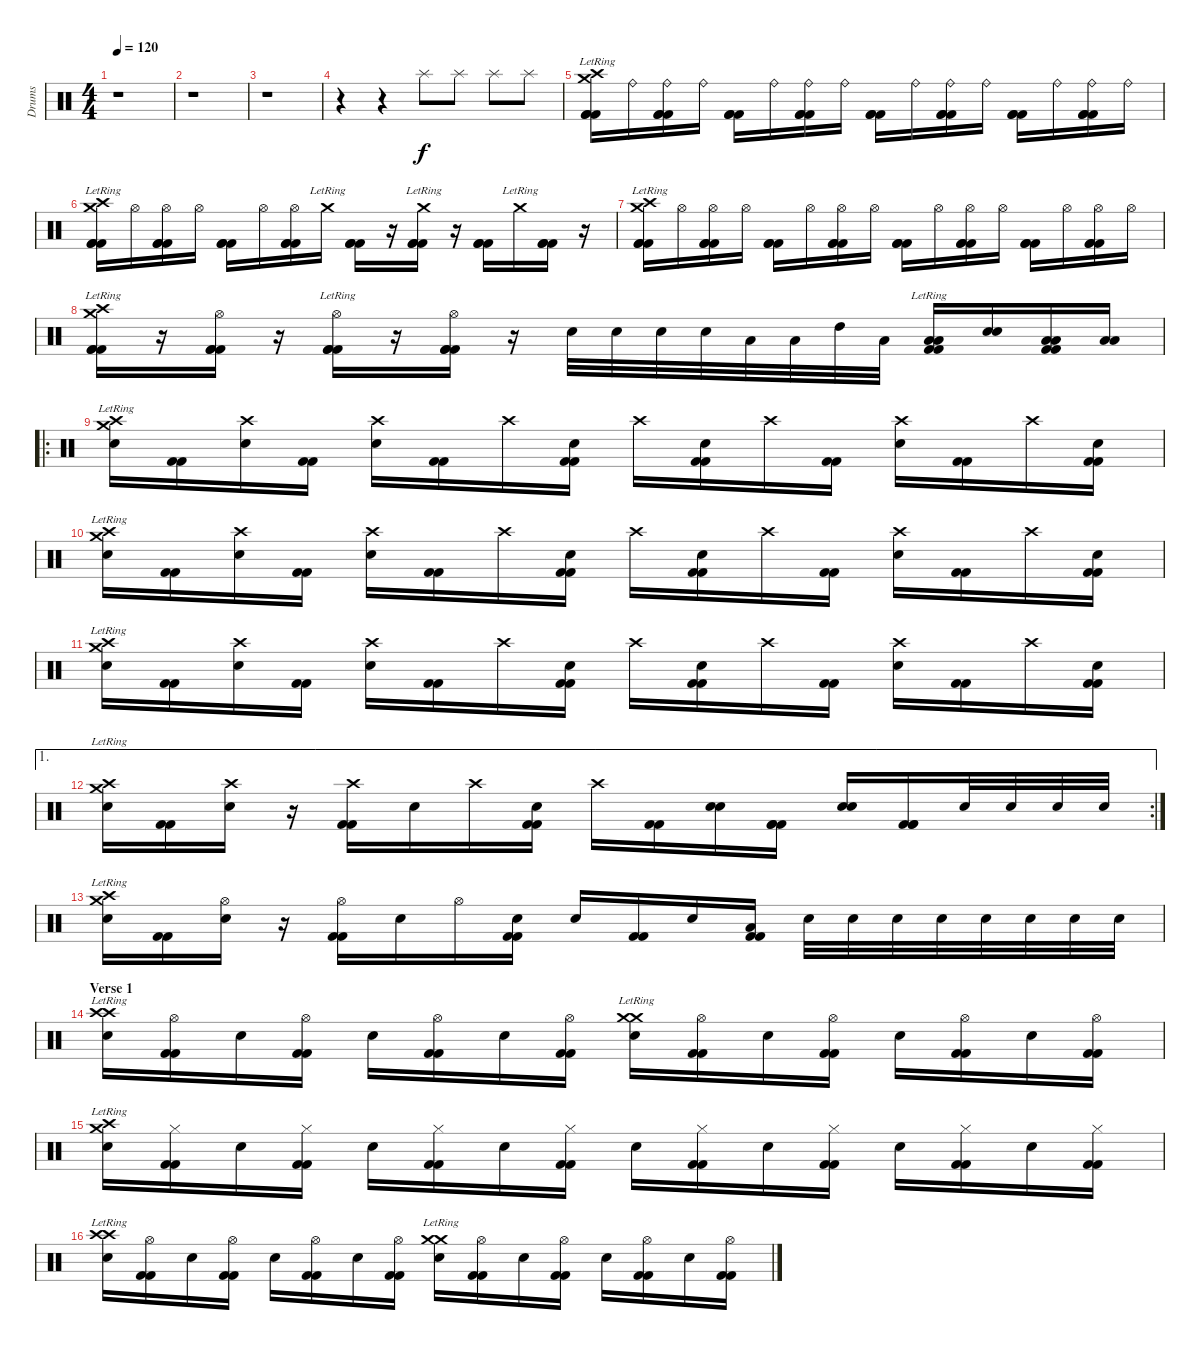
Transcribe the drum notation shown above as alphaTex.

\track ("Drums" "Drums") {instrument percussion}
\staff {score}
\articulation defaults
\ts (4 4)
\tempo 120
\clef neutral
\ks c
r.1{dy f} |
r.1 |
r.1 |
r.4 r.4 "Splash (hit)".8 "Splash (hit)".8 "Splash (hit)".8 "Splash (hit)".8 |
("Crash high (hit)"{lr} "Crash medium (hit)"{lr} "Kick (hit) 2" "Kick (hit) 2" "Kick (hit) 2").16 "Ride (bell)".16 ("Ride (bell)" "Kick (hit) 2" "Kick (hit) 2" "Kick (hit) 2").16 "Ride (bell)".16 ("Kick (hit) 2" "Kick (hit) 2" "Kick (hit) 2").16 "Ride (bell)".16 ("Ride (bell)" "Kick (hit) 2" "Kick (hit) 2" "Kick (hit) 2").16 "Ride (bell)".16 ("Kick (hit) 2" "Kick (hit) 2" "Kick (hit) 2").16 "Ride (bell)".16 ("Ride (bell)" "Kick (hit) 2" "Kick (hit) 2" "Kick (hit) 2").16 "Ride (bell)".16 ("Kick (hit) 2" "Kick (hit) 2" "Kick (hit) 2").16 "Ride (bell)".16 ("Ride (bell)" "Kick (hit) 2" "Kick (hit) 2" "Kick (hit) 2").16 "Ride (bell)".16 |
("Crash high (hit)"{lr} "Crash medium (hit)"{lr} "Kick (hit) 2" "Kick (hit) 2" "Kick (hit) 2").16 "Hi-Hat (open)".16 ("Hi-Hat (open)" "Kick (hit) 2" "Kick (hit) 2" "Kick (hit) 2").16 "Hi-Hat (open)".16 ("Kick (hit) 2" "Kick (hit) 2" "Kick (hit) 2").16 "Hi-Hat (open)".16 ("Hi-Hat (open)" "Kick (hit) 2" "Kick (hit) 2" "Kick (hit) 2").16 "Crash medium (hit)"{lr}.16 ("Kick (hit) 2" "Kick (hit) 2" "Kick (hit) 2").16 r.16 ("Crash medium (hit)"{lr} "Kick (hit) 2" "Kick (hit) 2" "Kick (hit) 2").16 r.16 ("Kick (hit) 2" "Kick (hit) 2" "Kick (hit) 2").16 "Crash medium (hit)"{lr}.16 ("Kick (hit) 2" "Kick (hit) 2" "Kick (hit) 2").16 r.16 |
("Crash high (hit)"{lr} "Crash medium (hit)"{lr} "Kick (hit) 2" "Kick (hit) 2" "Kick (hit) 2").16 "Hi-Hat (open)".16 ("Hi-Hat (open)" "Kick (hit) 2" "Kick (hit) 2" "Kick (hit) 2").16 "Hi-Hat (open)".16 ("Kick (hit) 2" "Kick (hit) 2" "Kick (hit) 2").16 "Hi-Hat (open)".16 ("Hi-Hat (open)" "Kick (hit) 2" "Kick (hit) 2" "Kick (hit) 2").16 "Hi-Hat (open)".16 ("Kick (hit) 2" "Kick (hit) 2" "Kick (hit) 2").16 "Hi-Hat (open)".16 ("Hi-Hat (open)" "Kick (hit) 2" "Kick (hit) 2" "Kick (hit) 2").16 "Hi-Hat (open)".16 ("Kick (hit) 2" "Kick (hit) 2" "Kick (hit) 2").16 "Hi-Hat (open)".16 ("Hi-Hat (open)" "Kick (hit) 2" "Kick (hit) 2" "Kick (hit) 2").16 "Hi-Hat (open)".16 |
("Crash high (hit)"{lr} "Crash medium (hit)"{lr} "Kick (hit) 2" "Kick (hit) 2" "Kick (hit) 2").16 r.16 ("Hi-Hat (open)" "Kick (hit) 2" "Kick (hit) 2" "Kick (hit) 2").16 r.16 ("Hi-Hat (open)"{lr} "Kick (hit) 2" "Kick (hit) 2" "Kick (hit) 2").16 r.16 ("Hi-Hat (open)" "Kick (hit) 2" "Kick (hit) 2" "Kick (hit) 2").16 r.16 "Electric Snare (hit)".32 "Electric Snare (hit)".32 "Electric Snare (hit)".32 "Electric Snare (hit)".32 "Low Floor Tom (hit)".32 "Low Tom (hit)".32 "High Tom (hit)".32 "Low Tom (hit)".32 ("Low Floor Tom (hit)" "Low Floor Tom (hit)"{lr} "Kick (hit) 2" "Kick (hit) 2").16 ("Electric Snare (hit)" "Electric Snare (hit)").16 ("Low Floor Tom (hit)" "Low Floor Tom (hit)" "Kick (hit) 2" "Kick (hit) 2").16 ("Low Tom (hit)" "Low Tom (hit)").16 |
\ro
("Crash medium (hit)"{lr} "Crash high (hit)"{lr} "Electric Snare (hit)").16 ("Kick (hit) 2" "Kick (hit) 2").16 ("Crash high (hit)" "Electric Snare (hit)").16 ("Kick (hit) 2" "Kick (hit) 2").16 ("Crash high (hit)" "Electric Snare (hit)").16 ("Kick (hit) 2" "Kick (hit) 2").16 "Crash high (hit)".16 ("Electric Snare (hit)" "Kick (hit) 2" "Kick (hit) 2").16 "Crash high (hit)".16 ("Electric Snare (hit)" "Kick (hit) 2" "Kick (hit) 2").16 "Crash high (hit)".16 ("Kick (hit) 2" "Kick (hit) 2").16 ("Crash high (hit)" "Electric Snare (hit)").16 ("Kick (hit) 2" "Kick (hit) 2").16 "Crash high (hit)".16 ("Electric Snare (hit)" "Kick (hit) 2" "Kick (hit) 2").16 |
("Crash medium (hit)"{lr} "Crash high (hit)"{lr} "Electric Snare (hit)").16 ("Kick (hit) 2" "Kick (hit) 2").16 ("Crash high (hit)" "Electric Snare (hit)").16 ("Kick (hit) 2" "Kick (hit) 2").16 ("Crash high (hit)" "Electric Snare (hit)").16 ("Kick (hit) 2" "Kick (hit) 2").16 "Crash high (hit)".16 ("Electric Snare (hit)" "Kick (hit) 2" "Kick (hit) 2").16 "Crash high (hit)".16 ("Electric Snare (hit)" "Kick (hit) 2" "Kick (hit) 2").16 "Crash high (hit)".16 ("Kick (hit) 2" "Kick (hit) 2").16 ("Crash high (hit)" "Electric Snare (hit)").16 ("Kick (hit) 2" "Kick (hit) 2").16 "Crash high (hit)".16 ("Electric Snare (hit)" "Kick (hit) 2" "Kick (hit) 2").16 |
("Crash medium (hit)"{lr} "Crash high (hit)"{lr} "Electric Snare (hit)").16 ("Kick (hit) 2" "Kick (hit) 2").16 ("Crash high (hit)" "Electric Snare (hit)").16 ("Kick (hit) 2" "Kick (hit) 2").16 ("Crash high (hit)" "Electric Snare (hit)").16 ("Kick (hit) 2" "Kick (hit) 2").16 "Crash high (hit)".16 ("Electric Snare (hit)" "Kick (hit) 2" "Kick (hit) 2").16 "Crash high (hit)".16 ("Electric Snare (hit)" "Kick (hit) 2" "Kick (hit) 2").16 "Crash high (hit)".16 ("Kick (hit) 2" "Kick (hit) 2").16 ("Crash high (hit)" "Electric Snare (hit)").16 ("Kick (hit) 2" "Kick (hit) 2").16 "Crash high (hit)".16 ("Electric Snare (hit)" "Kick (hit) 2" "Kick (hit) 2").16 |
\ae 1
\rc 2
("Crash medium (hit)"{lr} "Crash high (hit)"{lr} "Electric Snare (hit)").16 ("Kick (hit) 2" "Kick (hit) 2").16 ("Crash high (hit)" "Electric Snare (hit)").16 r.16 ("Crash high (hit)" "Kick (hit) 2" "Kick (hit) 2").16 "Electric Snare (hit)".16 "Crash high (hit)".16 ("Electric Snare (hit)" "Kick (hit) 2" "Kick (hit) 2").16 "Crash high (hit)".16 ("Kick (hit) 2" "Kick (hit) 2").16 ("Electric Snare (hit)" "Electric Snare (hit)").16 ("Kick (hit) 2" "Kick (hit) 2" "Kick (hit) 2").16 ("Electric Snare (hit)" "Electric Snare (hit)").16 ("Kick (hit) 2" "Kick (hit) 2" "Kick (hit) 2").16 "Electric Snare (hit)".32 "Electric Snare (hit)".32 "Electric Snare (hit)".32 "Electric Snare (hit)".32 |
("Crash high (hit)"{lr} "Crash medium (hit)"{lr} "Electric Snare (hit)").16 ("Kick (hit) 2" "Kick (hit) 2").16 ("Hi-Hat (open)" "Electric Snare (hit)").16 r.16 ("Hi-Hat (open)" "Kick (hit) 2" "Kick (hit) 2").16 "Electric Snare (hit)".16 "Hi-Hat (open)".16 ("Electric Snare (hit)" "Kick (hit) 2" "Kick (hit) 2").16 "Electric Snare (hit)".16 ("Kick (hit) 2" "Kick (hit) 2").16 "Electric Snare (hit)".16 ("Low Tom (hit)" "Kick (hit) 2" "Kick (hit) 2").16 "Electric Snare (hit)".32 "Electric Snare (hit)".32 "Electric Snare (hit)".32 "Electric Snare (hit)".32 "Electric Snare (hit)".32 "Electric Snare (hit)".32 "Electric Snare (hit)".32 "Electric Snare (hit)".32 |
\section ("" "Verse 1")
("Crash high (hit)"{lr} "Crash high (hit)"{lr} "Electric Snare (hit)").16 ("Hi-Hat (open)" "Kick (hit) 2" "Kick (hit) 2").16 "Electric Snare (hit)".16 ("Hi-Hat (open)" "Kick (hit) 2" "Kick (hit) 2").16 "Electric Snare (hit)".16 ("Hi-Hat (open)" "Kick (hit) 2" "Kick (hit) 2").16 "Electric Snare (hit)".16 ("Hi-Hat (open)" "Kick (hit) 2" "Kick (hit) 2").16 ("Crash medium (hit)"{lr} "Crash medium (hit)"{lr} "Electric Snare (hit)").16 ("Hi-Hat (open)" "Kick (hit) 2" "Kick (hit) 2").16 "Electric Snare (hit)".16 ("Hi-Hat (open)" "Kick (hit) 2" "Kick (hit) 2").16 "Electric Snare (hit)".16 ("Hi-Hat (open)" "Kick (hit) 2" "Kick (hit) 2").16 "Electric Snare (hit)".16 ("Hi-Hat (open)" "Kick (hit) 2" "Kick (hit) 2").16 |
("Crash medium (hit)"{lr} "Crash high (hit)"{lr} "Electric Snare (hit)").16 ("Hi-Hat (closed)" "Kick (hit) 2" "Kick (hit) 2").16 "Electric Snare (hit)".16 ("Hi-Hat (closed)" "Kick (hit) 2" "Kick (hit) 2").16 "Electric Snare (hit)".16 ("Hi-Hat (closed)" "Kick (hit) 2" "Kick (hit) 2").16 "Electric Snare (hit)".16 ("Hi-Hat (closed)" "Kick (hit) 2" "Kick (hit) 2").16 "Electric Snare (hit)".16 ("Hi-Hat (closed)" "Kick (hit) 2" "Kick (hit) 2").16 "Electric Snare (hit)".16 ("Hi-Hat (closed)" "Kick (hit) 2" "Kick (hit) 2").16 "Electric Snare (hit)".16 ("Hi-Hat (closed)" "Kick (hit) 2" "Kick (hit) 2").16 "Electric Snare (hit)".16 ("Hi-Hat (closed)" "Kick (hit) 2" "Kick (hit) 2").16 |
("Crash high (hit)"{lr} "Crash high (hit)"{lr} "Electric Snare (hit)").16 ("Hi-Hat (open)" "Kick (hit) 2" "Kick (hit) 2").16 "Electric Snare (hit)".16 ("Hi-Hat (open)" "Kick (hit) 2" "Kick (hit) 2").16 "Electric Snare (hit)".16 ("Hi-Hat (open)" "Kick (hit) 2" "Kick (hit) 2").16 "Electric Snare (hit)".16 ("Hi-Hat (open)" "Kick (hit) 2" "Kick (hit) 2").16 ("Crash medium (hit)"{lr} "Crash medium (hit)"{lr} "Electric Snare (hit)").16 ("Hi-Hat (open)" "Kick (hit) 2" "Kick (hit) 2").16 "Electric Snare (hit)".16 ("Hi-Hat (open)" "Kick (hit) 2" "Kick (hit) 2").16 "Electric Snare (hit)".16 ("Hi-Hat (open)" "Kick (hit) 2" "Kick (hit) 2").16 "Electric Snare (hit)".16 ("Hi-Hat (open)" "Kick (hit) 2" "Kick (hit) 2").16
